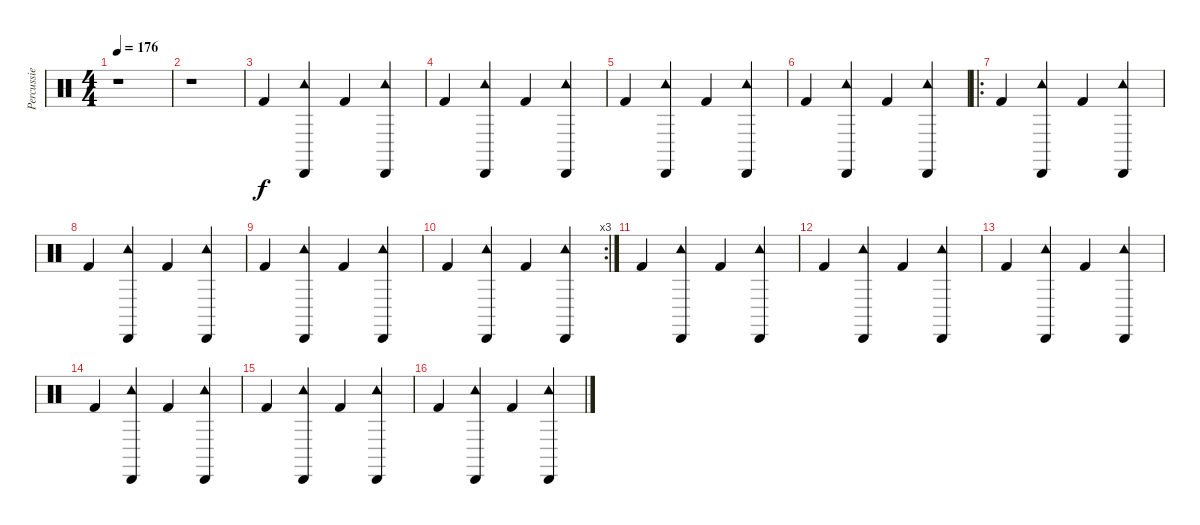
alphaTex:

\track ("Percussie" "Percussie") {instrument percussion}
\staff {score}
\articulation defaults
\ts (4 4)
\tempo 176
\clef neutral
\ks c
r.1{dy f} |
r.1 |
"Kick (hit) 2".4 ("Cabasa (hit)" "Tambourine (hit)").4 "Kick (hit) 2".4 ("Cabasa (hit)" "Tambourine (hit)").4 |
"Kick (hit) 2".4 ("Cabasa (hit)" "Tambourine (hit)").4 "Kick (hit) 2".4 ("Cabasa (hit)" "Tambourine (hit)").4 |
"Kick (hit) 2".4 ("Cabasa (hit)" "Tambourine (hit)").4 "Kick (hit) 2".4 ("Cabasa (hit)" "Tambourine (hit)").4 |
"Kick (hit) 2".4 ("Cabasa (hit)" "Tambourine (hit)").4 "Kick (hit) 2".4 ("Cabasa (hit)" "Tambourine (hit)").4 |
\ro "Kick (hit) 2".4
("Cabasa (hit)" "Tambourine (hit)").4 "Kick (hit) 2".4 ("Cabasa (hit)" "Tambourine (hit)").4 |
"Kick (hit) 2".4 ("Cabasa (hit)" "Tambourine (hit)").4 "Kick (hit) 2".4 ("Cabasa (hit)" "Tambourine (hit)").4 |
"Kick (hit) 2".4 ("Cabasa (hit)" "Tambourine (hit)").4 "Kick (hit) 2".4 ("Cabasa (hit)" "Tambourine (hit)").4 |
\rc 3 "Kick (hit) 2".4
("Cabasa (hit)" "Tambourine (hit)").4 "Kick (hit) 2".4 ("Cabasa (hit)" "Tambourine (hit)").4 |
"Kick (hit) 2".4 ("Cabasa (hit)" "Tambourine (hit)").4 "Kick (hit) 2".4 ("Cabasa (hit)" "Tambourine (hit)").4 |
"Kick (hit) 2".4 ("Cabasa (hit)" "Tambourine (hit)").4 "Kick (hit) 2".4 ("Cabasa (hit)" "Tambourine (hit)").4 |
"Kick (hit) 2".4 ("Cabasa (hit)" "Tambourine (hit)").4 "Kick (hit) 2".4 ("Cabasa (hit)" "Tambourine (hit)").4 |
"Kick (hit) 2".4 ("Cabasa (hit)" "Tambourine (hit)").4 "Kick (hit) 2".4 ("Cabasa (hit)" "Tambourine (hit)").4 |
"Kick (hit) 2".4 ("Cabasa (hit)" "Tambourine (hit)").4 "Kick (hit) 2".4 ("Cabasa (hit)" "Tambourine (hit)").4 |
"Kick (hit) 2".4 ("Cabasa (hit)" "Tambourine (hit)").4 "Kick (hit) 2".4 ("Cabasa (hit)" "Tambourine (hit)").4
